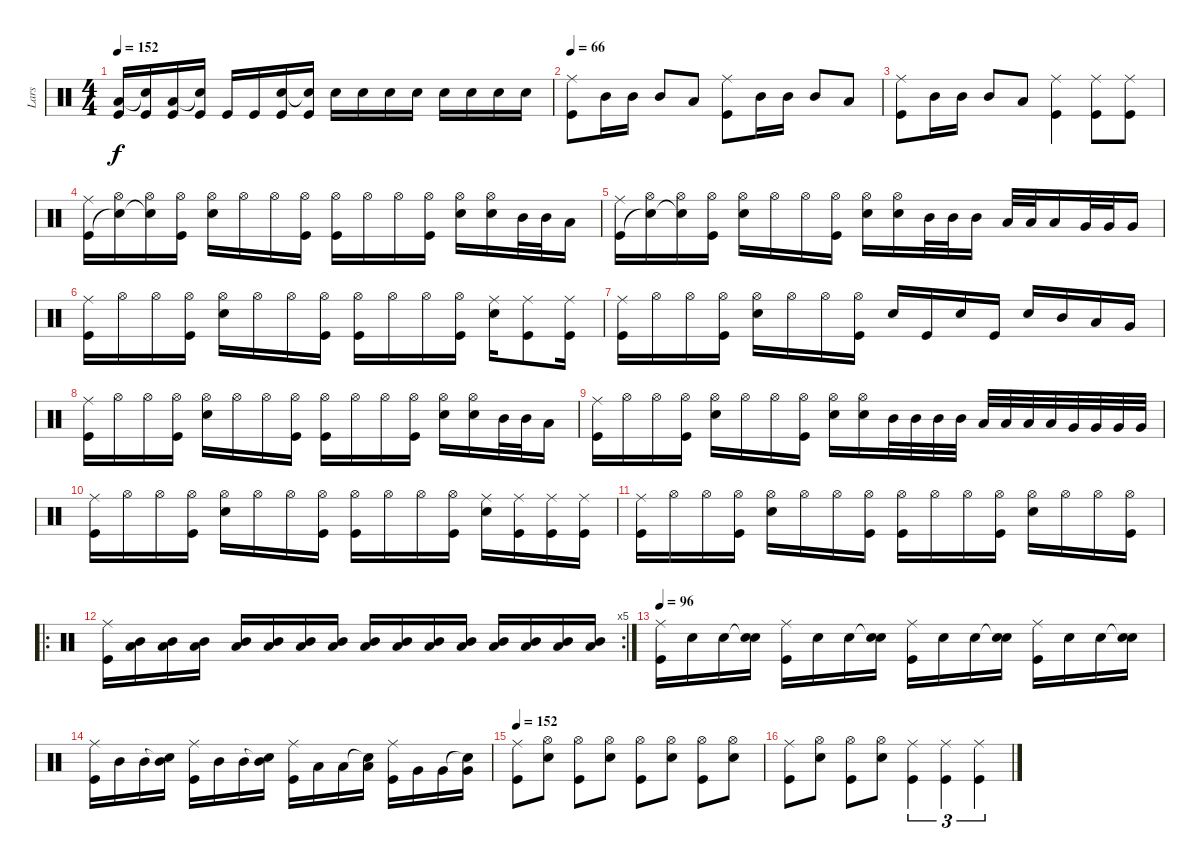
\track ("Lars" "Lars") {instrument percussion}
\staff {score}
\articulation defaults
\ts (4 4)
\tempo 152
\clef neutral
\ks c
("Low Tom (hit)" "Kick (hit)").16{dy f} ("Snare (hit)"{t} "Kick (hit)").16 ("Low Tom (hit)" "Kick (hit)").16 ("Snare (hit)"{t} "Kick (hit)").16 "Kick (hit)".16 "Kick (hit)".16 ("Snare (hit) 2" "Kick (hit)").16 ("Snare (hit)"{t} "Kick (hit)").16 "Snare (hit) 2".16 "Snare (hit) 2".16 "Snare (hit) 2".16 "Snare (hit) 2".16 "Snare (hit) 2".16 "Snare (hit) 2".16 "Snare (hit) 2".16 "Snare (hit) 2".16 |
\tempo 66
("Ride (middle)" "Kick (hit)").8 "Mid Tom (hit)".16 "Mid Tom (hit)".16 "Mid Tom (hit)".8 "Low Tom (hit)".8 ("Ride (middle)" "Kick (hit)").8 "Mid Tom (hit)".16 "Mid Tom (hit)".16 "Mid Tom (hit)".8 "Low Tom (hit)".8 |
("Ride (middle)" "Kick (hit)").8 "Mid Tom (hit)".16 "Mid Tom (hit)".16 "Mid Tom (hit)".8 "Low Tom (hit)".8 ("Ride (middle)" "Kick (hit)").4 ("Ride (middle)" "Kick (hit)").8 ("Ride (middle)" "Kick (hit)").8 |
("Ride (middle)" "Kick (hit)").16 ("Hi-Hat (open)" "Snare (hit)"{t}).16 ("Hi-Hat (open)" "Snare (hit)"{t}).16 ("Hi-Hat (open)" "Kick (hit)").16 ("Hi-Hat (open)" "Snare (hit) 2").16 "Hi-Hat (open)".16 "Hi-Hat (open)".16 ("Hi-Hat (open)" "Kick (hit)").16 ("Hi-Hat (open)" "Kick (hit)").16 "Hi-Hat (open)".16 "Hi-Hat (open)".16 ("Hi-Hat (open)" "Kick (hit)").16 ("Hi-Hat (open)" "Snare (hit) 2").16 ("Hi-Hat (open)" "Snare (hit) 2").16 "Mid Tom (hit)".32 "Mid Tom (hit)".32 "Low Tom (hit)".16 |
("Ride (middle)" "Kick (hit)").16 ("Hi-Hat (open)" "Snare (hit)"{t}).16 ("Hi-Hat (open)" "Snare (hit)"{t}).16 ("Hi-Hat (open)" "Kick (hit)").16 ("Hi-Hat (open)" "Snare (hit) 2").16 "Hi-Hat (open)".16 "Hi-Hat (open)".16 ("Hi-Hat (open)" "Kick (hit)").16 ("Hi-Hat (open)" "Snare (hit) 2").16 ("Hi-Hat (open)" "Snare (hit) 2").16 "Mid Tom (hit)".32 "Mid Tom (hit)".32 "Mid Tom (hit)".16 "Low Tom (hit)".32 "Low Tom (hit)".32 "Low Tom (hit)".16 "Very Low Tom (hit)".32 "Very Low Tom (hit)".32 "Very Low Tom (hit)".16 |
("Ride (middle)" "Kick (hit)").16 "Hi-Hat (open)".16 "Hi-Hat (open)".16 ("Hi-Hat (open)" "Kick (hit)").16 ("Hi-Hat (open)" "Snare (hit) 2").16 "Hi-Hat (open)".16 "Hi-Hat (open)".16 ("Hi-Hat (open)" "Kick (hit)").16 ("Hi-Hat (open)" "Kick (hit)").16 "Hi-Hat (open)".16 "Hi-Hat (open)".16 ("Hi-Hat (open)" "Kick (hit)").16 ("Ride (middle)" "Snare (hit) 2").16 ("Ride (middle)" "Kick (hit)").8 ("Ride (middle)" "Kick (hit)").16 |
("Ride (middle)" "Kick (hit)").16 "Hi-Hat (open)".16 "Hi-Hat (open)".16 ("Hi-Hat (open)" "Kick (hit)").16 ("Hi-Hat (open)" "Snare (hit) 2").16 "Hi-Hat (open)".16 "Hi-Hat (open)".16 ("Hi-Hat (open)" "Kick (hit)").16 "Snare (hit) 2".16 "Kick (hit)".16 "Snare (hit) 2".16 "Kick (hit)".16 "Snare (hit) 2".16 "Mid Tom (hit)".16 "Low Tom (hit)".16 "Very Low Tom (hit)".16 |
("Ride (middle)" "Kick (hit)").16 "Hi-Hat (open)".16 "Hi-Hat (open)".16 ("Hi-Hat (open)" "Kick (hit)").16 ("Hi-Hat (open)" "Snare (hit) 2").16 "Hi-Hat (open)".16 "Hi-Hat (open)".16 ("Hi-Hat (open)" "Kick (hit)").16 ("Hi-Hat (open)" "Kick (hit)").16 "Hi-Hat (open)".16 "Hi-Hat (open)".16 ("Hi-Hat (open)" "Kick (hit)").16 ("Hi-Hat (open)" "Snare (hit) 2").16 ("Hi-Hat (open)" "Snare (hit) 2").16 "Mid Tom (hit)".32 "Mid Tom (hit)".32 "Low Tom (hit)".16 |
("Ride (middle)" "Kick (hit)").16 "Hi-Hat (open)".16 "Hi-Hat (open)".16 ("Hi-Hat (open)" "Kick (hit)").16 ("Hi-Hat (open)" "Snare (hit) 2").16 "Hi-Hat (open)".16 "Hi-Hat (open)".16 ("Hi-Hat (open)" "Kick (hit)").16 ("Hi-Hat (open)" "Snare (hit) 2").16 ("Hi-Hat (open)" "Snare (hit) 2").16 "Mid Tom (hit)".32 "Mid Tom (hit)".32 "Mid Tom (hit)".32 "Mid Tom (hit)".32 "Low Tom (hit)".32 "Low Tom (hit)".32 "Low Tom (hit)".32 "Low Tom (hit)".32 "Very Low Tom (hit)".32 "Very Low Tom (hit)".32 "Very Low Tom (hit)".32 "Very Low Tom (hit)".32 |
("Ride (middle)" "Kick (hit)").16 "Hi-Hat (open)".16 "Hi-Hat (open)".16 ("Hi-Hat (open)" "Kick (hit)").16 ("Hi-Hat (open)" "Snare (hit) 2").16 "Hi-Hat (open)".16 "Hi-Hat (open)".16 ("Hi-Hat (open)" "Kick (hit)").16 ("Hi-Hat (open)" "Kick (hit)").16 "Hi-Hat (open)".16 "Hi-Hat (open)".16 ("Hi-Hat (open)" "Kick (hit)").16 ("Ride (middle)" "Snare (hit) 2").16 ("Ride (middle)" "Kick (hit)").16 ("Ride (middle)" "Kick (hit)").16 ("Ride (middle)" "Kick (hit)").16 |
("Ride (middle)" "Kick (hit)").16 "Hi-Hat (open)".16 "Hi-Hat (open)".16 ("Hi-Hat (open)" "Kick (hit)").16 ("Hi-Hat (open)" "Snare (hit) 2").16 "Hi-Hat (open)".16 "Hi-Hat (open)".16 ("Hi-Hat (open)" "Kick (hit)").16 ("Hi-Hat (open)" "Kick (hit)").16 "Hi-Hat (open)".16 "Hi-Hat (open)".16 ("Hi-Hat (open)" "Kick (hit)").16 ("Hi-Hat (open)" "Snare (hit) 2").16 "Hi-Hat (open)".16 "Hi-Hat (open)".16 ("Hi-Hat (open)" "Kick (hit)").16 |
\ro
\rc 5
("Ride (middle)" "Kick (hit)").16 ("Mid Tom (hit)" "Low Tom (hit)").16 ("Mid Tom (hit)" "Low Tom (hit)").16 ("Mid Tom (hit)" "Low Tom (hit)").16 ("Mid Tom (hit)" "Low Tom (hit)").16 ("Mid Tom (hit)" "Low Tom (hit)").16 ("Mid Tom (hit)" "Low Tom (hit)").16 ("Mid Tom (hit)" "Low Tom (hit)").16 ("Mid Tom (hit)" "Low Tom (hit)").16 ("Mid Tom (hit)" "Low Tom (hit)").16 ("Mid Tom (hit)" "Low Tom (hit)").16 ("Mid Tom (hit)" "Low Tom (hit)").16 ("Mid Tom (hit)" "Low Tom (hit)").16 ("Mid Tom (hit)" "Low Tom (hit)").16 ("Mid Tom (hit)" "Low Tom (hit)").16 ("Mid Tom (hit)" "Low Tom (hit)").16 |
\tempo 96
("Ride (middle)" "Kick (hit)").16 "Snare (hit) 2".16 "Snare (hit) 2".16 ("Snare (hit)"{t} "Snare (hit) 2").16 ("Ride (middle)" "Kick (hit)").16 "Snare (hit) 2".16 "Snare (hit) 2".16 ("Snare (hit)"{t} "Snare (hit) 2").16 ("Ride (middle)" "Kick (hit)").16 "Snare (hit) 2".16 "Snare (hit) 2".16 ("Snare (hit)"{t} "Snare (hit) 2").16 ("Ride (middle)" "Kick (hit)").16 "Snare (hit) 2".16 "Snare (hit) 2".16 ("Snare (hit)"{t} "Snare (hit) 2").16 |
("Ride (middle)" "Kick (hit)").16 "Mid Tom (hit)".16 "Mid Tom (hit)".16 ("Snare (hit)"{t} "Mid Tom (hit)").16 ("Ride (middle)" "Kick (hit)").16 "Mid Tom (hit)".16 "Mid Tom (hit)".16 ("Snare (hit)"{t} "Mid Tom (hit)").16 ("Ride (middle)" "Kick (hit)").16 "Low Tom (hit)".16 "Low Tom (hit)".16 ("Snare (hit)"{t} "Low Tom (hit)").16 ("Ride (middle)" "Kick (hit)").16 "Very Low Tom (hit)".16 "Very Low Tom (hit)".16 ("Snare (hit)"{t} "Very Low Tom (hit)").16 |
\tempo 152
("Ride (middle)" "Kick (hit)").8 ("Hi-Hat (open)" "Snare (hit) 2").8 ("Hi-Hat (open)" "Kick (hit)").8 ("Hi-Hat (open)" "Snare (hit) 2").8 ("Hi-Hat (open)" "Kick (hit)").8 ("Hi-Hat (open)" "Snare (hit) 2").8 ("Hi-Hat (open)" "Kick (hit)").8 ("Hi-Hat (open)" "Snare (hit) 2").8 |
("Ride (middle)" "Kick (hit)").8 ("Hi-Hat (open)" "Snare (hit) 2").8 ("Hi-Hat (open)" "Kick (hit)").8 ("Hi-Hat (open)" "Snare (hit) 2").8 ("Ride (middle)" "Kick (hit)").4{tu (3 2)} ("Ride (middle)" "Kick (hit)").4{tu (3 2)} ("Ride (middle)" "Kick (hit)").4{tu (3 2)}
